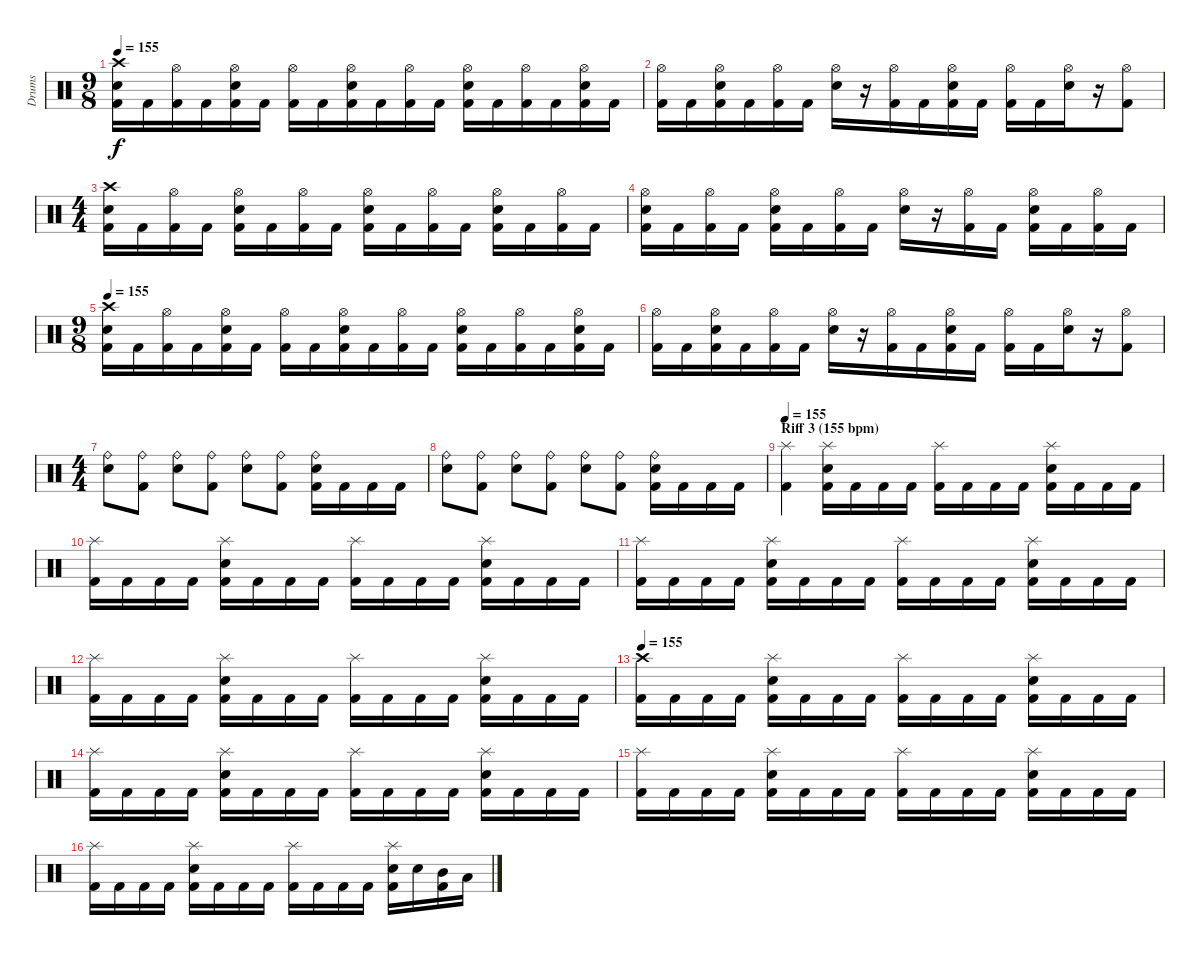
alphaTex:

\track ("Drums" "Drums") {instrument percussion}
\staff {score}
\articulation defaults
\ts (9 8)
\tempo 155
\clef neutral
\ks c
("Kick (hit) 2" "Snare (hit) 2" "Crash high (hit)").16{dy f} "Kick (hit) 2".16 ("Kick (hit) 2" "Hi-Hat (open)").16 "Kick (hit) 2".16 ("Kick (hit) 2" "Snare (hit) 2" "Hi-Hat (open)").16 "Kick (hit) 2".16 ("Kick (hit) 2" "Hi-Hat (open)").16 "Kick (hit) 2".16 ("Kick (hit) 2" "Snare (hit) 2" "Hi-Hat (open)").16 "Kick (hit) 2".16 ("Kick (hit) 2" "Hi-Hat (open)").16 "Kick (hit) 2".16 ("Kick (hit) 2" "Snare (hit) 2" "Hi-Hat (open)").16 "Kick (hit) 2".16 ("Kick (hit) 2" "Hi-Hat (open)").16 "Kick (hit) 2".16 ("Kick (hit) 2" "Snare (hit) 2" "Hi-Hat (open)").16 "Kick (hit) 2".16 |
("Kick (hit) 2" "Hi-Hat (open)").16 "Kick (hit) 2".16 ("Kick (hit) 2" "Snare (hit) 2" "Hi-Hat (open)").16 "Kick (hit) 2".16 ("Kick (hit) 2" "Hi-Hat (open)").16 "Kick (hit) 2".16 ("Snare (hit) 2" "Hi-Hat (open)").16 r.16 ("Kick (hit) 2" "Hi-Hat (open)").16 "Kick (hit) 2".16 ("Kick (hit) 2" "Snare (hit) 2" "Hi-Hat (open)").16 "Kick (hit) 2".16 ("Kick (hit) 2" "Hi-Hat (open)").16 "Kick (hit) 2".16 ("Snare (hit) 2" "Hi-Hat (open)").16 r.16 ("Kick (hit) 2" "Hi-Hat (open)").8 |
\ts (4 4)
("Kick (hit) 2" "Snare (hit) 2" "Crash high (hit)").16 "Kick (hit) 2".16 ("Kick (hit) 2" "Hi-Hat (open)").16 "Kick (hit) 2".16 ("Kick (hit) 2" "Snare (hit) 2" "Hi-Hat (open)").16 "Kick (hit) 2".16 ("Kick (hit) 2" "Hi-Hat (open)").16 "Kick (hit) 2".16 ("Kick (hit) 2" "Snare (hit) 2" "Hi-Hat (open)").16 "Kick (hit) 2".16 ("Kick (hit) 2" "Hi-Hat (open)").16 "Kick (hit) 2".16 ("Kick (hit) 2" "Snare (hit) 2" "Hi-Hat (open)").16 "Kick (hit) 2".16 ("Kick (hit) 2" "Hi-Hat (open)").16 "Kick (hit) 2".16 |
("Kick (hit) 2" "Snare (hit) 2" "Hi-Hat (open)").16 "Kick (hit) 2".16 ("Kick (hit) 2" "Hi-Hat (open)").16 "Kick (hit) 2".16 ("Kick (hit) 2" "Snare (hit) 2" "Hi-Hat (open)").16 "Kick (hit) 2".16 ("Kick (hit) 2" "Hi-Hat (open)").16 "Kick (hit) 2".16 ("Snare (hit) 2" "Hi-Hat (open)").16 r.16 ("Kick (hit) 2" "Hi-Hat (open)").16 "Kick (hit) 2".16 ("Kick (hit) 2" "Snare (hit) 2" "Hi-Hat (open)").16 "Kick (hit) 2".16 ("Kick (hit) 2" "Hi-Hat (open)").16 "Kick (hit) 2".16 |
\ts (9 8)
\tempo 155
("Kick (hit) 2" "Snare (hit) 2" "Crash high (hit)").16 "Kick (hit) 2".16 ("Kick (hit) 2" "Hi-Hat (open)").16 "Kick (hit) 2".16 ("Kick (hit) 2" "Snare (hit) 2" "Hi-Hat (open)").16 "Kick (hit) 2".16 ("Kick (hit) 2" "Hi-Hat (open)").16 "Kick (hit) 2".16 ("Kick (hit) 2" "Snare (hit) 2" "Hi-Hat (open)").16 "Kick (hit) 2".16 ("Kick (hit) 2" "Hi-Hat (open)").16 "Kick (hit) 2".16 ("Kick (hit) 2" "Snare (hit) 2" "Hi-Hat (open)").16 "Kick (hit) 2".16 ("Kick (hit) 2" "Hi-Hat (open)").16 "Kick (hit) 2".16 ("Kick (hit) 2" "Snare (hit) 2" "Hi-Hat (open)").16 "Kick (hit) 2".16 |
("Kick (hit) 2" "Hi-Hat (open)").16 "Kick (hit) 2".16 ("Kick (hit) 2" "Snare (hit) 2" "Hi-Hat (open)").16 "Kick (hit) 2".16 ("Kick (hit) 2" "Hi-Hat (open)").16 "Kick (hit) 2".16 ("Snare (hit) 2" "Hi-Hat (open)").16 r.16 ("Kick (hit) 2" "Hi-Hat (open)").16 "Kick (hit) 2".16 ("Kick (hit) 2" "Snare (hit) 2" "Hi-Hat (open)").16 "Kick (hit) 2".16 ("Kick (hit) 2" "Hi-Hat (open)").16 "Kick (hit) 2".16 ("Snare (hit) 2" "Hi-Hat (open)").16 r.16 ("Kick (hit) 2" "Hi-Hat (open)").8 |
\ts (4 4)
("Snare (hit) 2" "Ride (bell)").8 ("Kick (hit) 2" "Ride (bell)").8 ("Snare (hit) 2" "Ride (bell)").8 ("Kick (hit) 2" "Ride (bell)").8 ("Snare (hit) 2" "Ride (bell)").8 ("Kick (hit) 2" "Ride (bell)").8 ("Kick (hit) 2" "Snare (hit) 2" "Ride (bell)").16 "Kick (hit) 2".16 "Kick (hit) 2".16 "Kick (hit) 2".16 |
("Snare (hit) 2" "Ride (bell)").8 ("Kick (hit) 2" "Ride (bell)").8 ("Snare (hit) 2" "Ride (bell)").8 ("Kick (hit) 2" "Ride (bell)").8 ("Snare (hit) 2" "Ride (bell)").8 ("Kick (hit) 2" "Ride (bell)").8 ("Kick (hit) 2" "Snare (hit) 2" "Ride (bell)").16 "Kick (hit) 2".16 "Kick (hit) 2".16 "Kick (hit) 2".16 |
\section ("" "Riff 3 (155 bpm)")
\tempo 155
("Kick (hit) 2" "Splash (hit)").4 ("Kick (hit) 2" "Snare (hit) 2" "Splash (hit)").16 "Kick (hit) 2".16 "Kick (hit) 2".16 "Kick (hit) 2".16 ("Kick (hit) 2" "Splash (hit)").16 "Kick (hit) 2".16 "Kick (hit) 2".16 "Kick (hit) 2".16 ("Kick (hit) 2" "Snare (hit) 2" "Splash (hit)").16 "Kick (hit) 2".16 "Kick (hit) 2".16 "Kick (hit) 2".16 |
("Kick (hit) 2" "Splash (hit)").16 "Kick (hit) 2".16 "Kick (hit) 2".16 "Kick (hit) 2".16 ("Kick (hit) 2" "Snare (hit) 2" "Splash (hit)").16 "Kick (hit) 2".16 "Kick (hit) 2".16 "Kick (hit) 2".16 ("Kick (hit) 2" "Splash (hit)").16 "Kick (hit) 2".16 "Kick (hit) 2".16 "Kick (hit) 2".16 ("Kick (hit) 2" "Snare (hit) 2" "Splash (hit)").16 "Kick (hit) 2".16 "Kick (hit) 2".16 "Kick (hit) 2".16 |
("Kick (hit) 2" "Splash (hit)").16 "Kick (hit) 2".16 "Kick (hit) 2".16 "Kick (hit) 2".16 ("Kick (hit) 2" "Snare (hit) 2" "Splash (hit)").16 "Kick (hit) 2".16 "Kick (hit) 2".16 "Kick (hit) 2".16 ("Kick (hit) 2" "Splash (hit)").16 "Kick (hit) 2".16 "Kick (hit) 2".16 "Kick (hit) 2".16 ("Kick (hit) 2" "Snare (hit) 2" "Splash (hit)").16 "Kick (hit) 2".16 "Kick (hit) 2".16 "Kick (hit) 2".16 |
("Kick (hit) 2" "Splash (hit)").16 "Kick (hit) 2".16 "Kick (hit) 2".16 "Kick (hit) 2".16 ("Kick (hit) 2" "Snare (hit) 2" "Splash (hit)").16 "Kick (hit) 2".16 "Kick (hit) 2".16 "Kick (hit) 2".16 ("Kick (hit) 2" "Splash (hit)").16 "Kick (hit) 2".16 "Kick (hit) 2".16 "Kick (hit) 2".16 ("Kick (hit) 2" "Snare (hit) 2" "Splash (hit)").16 "Kick (hit) 2".16 "Kick (hit) 2".16 "Kick (hit) 2".16 |
\tempo 155
("Kick (hit) 2" "Crash high (hit)").16 "Kick (hit) 2".16 "Kick (hit) 2".16 "Kick (hit) 2".16 ("Kick (hit) 2" "Snare (hit) 2" "Splash (hit)").16 "Kick (hit) 2".16 "Kick (hit) 2".16 "Kick (hit) 2".16 ("Kick (hit) 2" "Splash (hit)").16 "Kick (hit) 2".16 "Kick (hit) 2".16 "Kick (hit) 2".16 ("Kick (hit) 2" "Snare (hit) 2" "Splash (hit)").16 "Kick (hit) 2".16 "Kick (hit) 2".16 "Kick (hit) 2".16 |
("Kick (hit) 2" "Splash (hit)").16 "Kick (hit) 2".16 "Kick (hit) 2".16 "Kick (hit) 2".16 ("Kick (hit) 2" "Snare (hit) 2" "Splash (hit)").16 "Kick (hit) 2".16 "Kick (hit) 2".16 "Kick (hit) 2".16 ("Kick (hit) 2" "Splash (hit)").16 "Kick (hit) 2".16 "Kick (hit) 2".16 "Kick (hit) 2".16 ("Kick (hit) 2" "Snare (hit) 2" "Splash (hit)").16 "Kick (hit) 2".16 "Kick (hit) 2".16 "Kick (hit) 2".16 |
("Kick (hit) 2" "Splash (hit)").16 "Kick (hit) 2".16 "Kick (hit) 2".16 "Kick (hit) 2".16 ("Kick (hit) 2" "Snare (hit) 2" "Splash (hit)").16 "Kick (hit) 2".16 "Kick (hit) 2".16 "Kick (hit) 2".16 ("Kick (hit) 2" "Splash (hit)").16 "Kick (hit) 2".16 "Kick (hit) 2".16 "Kick (hit) 2".16 ("Kick (hit) 2" "Snare (hit) 2" "Splash (hit)").16 "Kick (hit) 2".16 "Kick (hit) 2".16 "Kick (hit) 2".16 |
("Kick (hit) 2" "Splash (hit)").16 "Kick (hit) 2".16 "Kick (hit) 2".16 "Kick (hit) 2".16 ("Kick (hit) 2" "Snare (hit) 2" "Splash (hit)").16 "Kick (hit) 2".16 "Kick (hit) 2".16 "Kick (hit) 2".16 ("Kick (hit) 2" "Splash (hit)").16 "Kick (hit) 2".16 "Kick (hit) 2".16 "Kick (hit) 2".16 ("Kick (hit) 2" "Snare (hit) 2" "Splash (hit)").16 "Snare (hit) 2".16 ("Kick (hit) 2" "Mid Tom (hit)").16 "Low Tom (hit)".16
